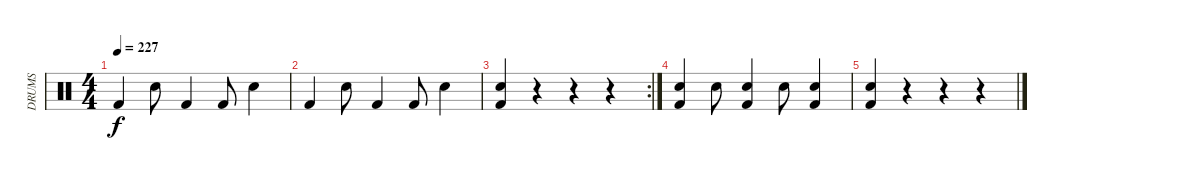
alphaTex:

\track ("DRUMS" "DRUMS") {instrument percussion}
\staff {score}
\articulation defaults
\ts (4 4)
\tempo 227
\clef neutral
\ks c "Kick (hit) 2".4{dy f} "Snare (hit) 2".8 "Kick (hit) 2".4 "Kick (hit) 2".8 "Snare (hit) 2".4
|
"Kick (hit) 2".4 "Snare (hit) 2".8 "Kick (hit) 2".4 "Kick (hit) 2".8 "Snare (hit) 2".4 |
\rc 2
("Kick (hit) 2" "Snare (hit) 2").4 r.4 r.4 r.4 |
("Kick (hit) 2" "Snare (hit) 2").4 "Snare (hit) 2".8 ("Kick (hit) 2" "Snare (hit) 2").4 "Snare (hit) 2".8 ("Kick (hit) 2" "Snare (hit) 2").4 |
("Kick (hit) 2" "Snare (hit) 2").4 r.4 r.4 r.4
